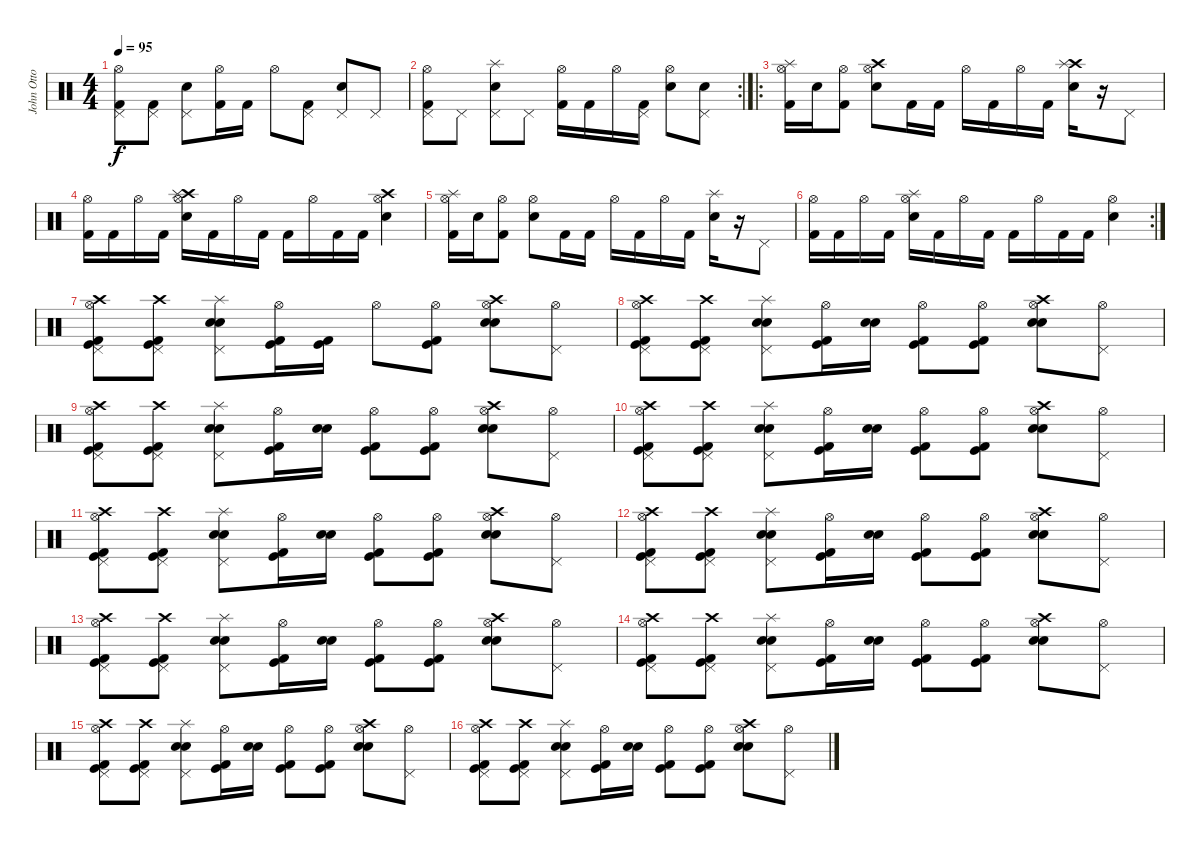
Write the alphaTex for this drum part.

\track ("John Otto (Drums)" "John Otto ") {instrument percussion}
\staff {score}
\articulation defaults
\ts (4 4)
\tempo 95
\clef neutral
\ks c
("Hi-Hat (open)" "Pedal Hi-Hat (hit)" "Kick (hit) 2").8{dy f} ("Pedal Hi-Hat (hit)" "Kick (hit) 2").8 ("Pedal Hi-Hat (hit)" "Electric Snare (hit)").8 ("Hi-Hat (open)" "Kick (hit) 2").16 "Kick (hit) 2".16 "Hi-Hat (open)".8 ("Pedal Hi-Hat (hit)" "Kick (hit) 2").8 ("Pedal Hi-Hat (hit)" "Electric Snare (hit)").8 "Pedal Hi-Hat (hit)".8 |
\rc 2
("Hi-Hat (open)" "Pedal Hi-Hat (hit)" "Kick (hit) 2").8 "Pedal Hi-Hat (hit)".8 ("Splash (hit)" "Pedal Hi-Hat (hit)" "Electric Snare (hit)").8 "Pedal Hi-Hat (hit)".8 ("Hi-Hat (open)" "Kick (hit) 2").16 "Kick (hit) 2".16 "Hi-Hat (open)".16 ("Pedal Hi-Hat (hit)" "Kick (hit) 2").16 ("Hi-Hat (open)" "Electric Snare (hit)").8 ("Pedal Hi-Hat (hit)" "Electric Snare (hit)").8 |
\ro
("Splash (hit)" "Hi-Hat (open)" "Kick (hit) 2").16 "Electric Snare (hit)".16 ("Hi-Hat (open)" "Kick (hit) 2").8 ("Crash high (hit)" "Hi-Hat (open)" "Electric Snare (hit)").8 "Kick (hit) 2".16 "Kick (hit) 2".16 "Hi-Hat (open)".16 "Kick (hit) 2".16 "Hi-Hat (open)".16 "Kick (hit) 2".16 ("Crash high (hit)" "Splash (hit)" "Electric Snare (hit)").16 r.16 "Pedal Hi-Hat (hit)".8 |
("Hi-Hat (open)" "Kick (hit) 2").16 "Kick (hit) 2".16 "Hi-Hat (open)".16 "Kick (hit) 2".16 ("Crash high (hit)" "Splash (hit)" "Hi-Hat (open)" "Electric Snare (hit)").16 "Kick (hit) 2".16 "Hi-Hat (open)".16 "Kick (hit) 2".16 "Kick (hit) 2".16 "Hi-Hat (open)".16 "Kick (hit) 2".16 "Kick (hit) 2".16 ("Crash high (hit)" "Hi-Hat (open)" "Electric Snare (hit)").4 |
("Splash (hit)" "Hi-Hat (open)" "Kick (hit) 2").16 "Electric Snare (hit)".16 ("Hi-Hat (open)" "Kick (hit) 2").8 ("Hi-Hat (open)" "Electric Snare (hit)").8 "Kick (hit) 2".16 "Kick (hit) 2".16 "Hi-Hat (open)".16 "Kick (hit) 2".16 "Hi-Hat (open)".16 "Kick (hit) 2".16 ("Splash (hit)" "Electric Snare (hit)").16 r.16 "Pedal Hi-Hat (hit)".8 |
\rc 2
("Hi-Hat (open)" "Kick (hit) 2").16 "Kick (hit) 2".16 "Hi-Hat (open)".16 "Kick (hit) 2".16 ("Splash (hit)" "Hi-Hat (open)" "Electric Snare (hit)").16 "Kick (hit) 2".16 "Hi-Hat (open)".16 "Kick (hit) 2".16 "Kick (hit) 2".16 "Hi-Hat (open)".16 "Kick (hit) 2".16 "Kick (hit) 2".16 ("Hi-Hat (open)" "Electric Snare (hit)").4 |
("Kick (hit)" "Crash high (hit)" "Hi-Hat (open)" "Pedal Hi-Hat (hit)" "Kick (hit) 2").8 ("Kick (hit)" "Crash high (hit)" "Pedal Hi-Hat (hit)" "Kick (hit) 2").8 ("Electric Snare (hit)" "Splash (hit)" "Pedal Hi-Hat (hit)" "Electric Snare (hit)").8 ("Kick (hit)" "Hi-Hat (open)" "Kick (hit) 2").16 ("Kick (hit)" "Kick (hit) 2").16 "Hi-Hat (open)".8 ("Kick (hit)" "Hi-Hat (open)" "Kick (hit) 2").8 ("Electric Snare (hit)" "Crash high (hit)" "Hi-Hat (open)" "Electric Snare (hit)").8 ("Hi-Hat (open)" "Pedal Hi-Hat (hit)").8 |
("Kick (hit)" "Crash high (hit)" "Hi-Hat (open)" "Pedal Hi-Hat (hit)" "Kick (hit) 2").8 ("Kick (hit)" "Crash high (hit)" "Pedal Hi-Hat (hit)" "Kick (hit) 2").8 ("Electric Snare (hit)" "Splash (hit)" "Pedal Hi-Hat (hit)" "Electric Snare (hit)").8 ("Kick (hit)" "Hi-Hat (open)" "Kick (hit) 2").16 ("Electric Snare (hit)" "Electric Snare (hit)").16 ("Kick (hit)" "Hi-Hat (open)" "Kick (hit) 2").8 ("Kick (hit)" "Hi-Hat (open)" "Kick (hit) 2").8 ("Electric Snare (hit)" "Crash high (hit)" "Hi-Hat (open)" "Electric Snare (hit)").8 ("Hi-Hat (open)" "Pedal Hi-Hat (hit)").8 |
("Kick (hit)" "Crash high (hit)" "Hi-Hat (open)" "Pedal Hi-Hat (hit)" "Kick (hit) 2").8 ("Kick (hit)" "Crash high (hit)" "Pedal Hi-Hat (hit)" "Kick (hit) 2").8 ("Electric Snare (hit)" "Splash (hit)" "Pedal Hi-Hat (hit)" "Electric Snare (hit)").8 ("Kick (hit)" "Hi-Hat (open)" "Kick (hit) 2").16 ("Electric Snare (hit)" "Electric Snare (hit)").16 ("Kick (hit)" "Hi-Hat (open)" "Kick (hit) 2").8 ("Kick (hit)" "Hi-Hat (open)" "Kick (hit) 2").8 ("Electric Snare (hit)" "Crash high (hit)" "Hi-Hat (open)" "Electric Snare (hit)").8 ("Hi-Hat (open)" "Pedal Hi-Hat (hit)").8 |
("Kick (hit)" "Crash high (hit)" "Hi-Hat (open)" "Pedal Hi-Hat (hit)" "Kick (hit) 2").8 ("Kick (hit)" "Crash high (hit)" "Pedal Hi-Hat (hit)" "Kick (hit) 2").8 ("Electric Snare (hit)" "Splash (hit)" "Pedal Hi-Hat (hit)" "Electric Snare (hit)").8 ("Kick (hit)" "Hi-Hat (open)" "Kick (hit) 2").16 ("Electric Snare (hit)" "Electric Snare (hit)").16 ("Kick (hit)" "Hi-Hat (open)" "Kick (hit) 2").8 ("Kick (hit)" "Hi-Hat (open)" "Kick (hit) 2").8 ("Electric Snare (hit)" "Crash high (hit)" "Hi-Hat (open)" "Electric Snare (hit)").8 ("Hi-Hat (open)" "Pedal Hi-Hat (hit)").8 |
("Kick (hit)" "Crash high (hit)" "Hi-Hat (open)" "Pedal Hi-Hat (hit)" "Kick (hit) 2").8 ("Kick (hit)" "Crash high (hit)" "Pedal Hi-Hat (hit)" "Kick (hit) 2").8 ("Electric Snare (hit)" "Splash (hit)" "Pedal Hi-Hat (hit)" "Electric Snare (hit)").8 ("Kick (hit)" "Hi-Hat (open)" "Kick (hit) 2").16 ("Electric Snare (hit)" "Electric Snare (hit)").16 ("Kick (hit)" "Hi-Hat (open)" "Kick (hit) 2").8 ("Kick (hit)" "Hi-Hat (open)" "Kick (hit) 2").8 ("Electric Snare (hit)" "Crash high (hit)" "Hi-Hat (open)" "Electric Snare (hit)").8 ("Hi-Hat (open)" "Pedal Hi-Hat (hit)").8 |
("Kick (hit)" "Crash high (hit)" "Hi-Hat (open)" "Pedal Hi-Hat (hit)" "Kick (hit) 2").8 ("Kick (hit)" "Crash high (hit)" "Pedal Hi-Hat (hit)" "Kick (hit) 2").8 ("Electric Snare (hit)" "Splash (hit)" "Pedal Hi-Hat (hit)" "Electric Snare (hit)").8 ("Kick (hit)" "Hi-Hat (open)" "Kick (hit) 2").16 ("Electric Snare (hit)" "Electric Snare (hit)").16 ("Kick (hit)" "Hi-Hat (open)" "Kick (hit) 2").8 ("Kick (hit)" "Hi-Hat (open)" "Kick (hit) 2").8 ("Electric Snare (hit)" "Crash high (hit)" "Hi-Hat (open)" "Electric Snare (hit)").8 ("Hi-Hat (open)" "Pedal Hi-Hat (hit)").8 |
("Kick (hit)" "Crash high (hit)" "Hi-Hat (open)" "Pedal Hi-Hat (hit)" "Kick (hit) 2").8 ("Kick (hit)" "Crash high (hit)" "Pedal Hi-Hat (hit)" "Kick (hit) 2").8 ("Electric Snare (hit)" "Splash (hit)" "Pedal Hi-Hat (hit)" "Electric Snare (hit)").8 ("Kick (hit)" "Hi-Hat (open)" "Kick (hit) 2").16 ("Electric Snare (hit)" "Electric Snare (hit)").16 ("Kick (hit)" "Hi-Hat (open)" "Kick (hit) 2").8 ("Kick (hit)" "Hi-Hat (open)" "Kick (hit) 2").8 ("Electric Snare (hit)" "Crash high (hit)" "Hi-Hat (open)" "Electric Snare (hit)").8 ("Hi-Hat (open)" "Pedal Hi-Hat (hit)").8 |
("Kick (hit)" "Crash high (hit)" "Hi-Hat (open)" "Pedal Hi-Hat (hit)" "Kick (hit) 2").8 ("Kick (hit)" "Crash high (hit)" "Pedal Hi-Hat (hit)" "Kick (hit) 2").8 ("Electric Snare (hit)" "Splash (hit)" "Pedal Hi-Hat (hit)" "Electric Snare (hit)").8 ("Kick (hit)" "Hi-Hat (open)" "Kick (hit) 2").16 ("Electric Snare (hit)" "Electric Snare (hit)").16 ("Kick (hit)" "Hi-Hat (open)" "Kick (hit) 2").8 ("Kick (hit)" "Hi-Hat (open)" "Kick (hit) 2").8 ("Electric Snare (hit)" "Crash high (hit)" "Hi-Hat (open)" "Electric Snare (hit)").8 ("Hi-Hat (open)" "Pedal Hi-Hat (hit)").8 |
("Kick (hit)" "Crash high (hit)" "Hi-Hat (open)" "Pedal Hi-Hat (hit)" "Kick (hit) 2").8 ("Kick (hit)" "Crash high (hit)" "Pedal Hi-Hat (hit)" "Kick (hit) 2").8 ("Electric Snare (hit)" "Splash (hit)" "Pedal Hi-Hat (hit)" "Electric Snare (hit)").8 ("Kick (hit)" "Hi-Hat (open)" "Kick (hit) 2").16 ("Electric Snare (hit)" "Electric Snare (hit)").16 ("Kick (hit)" "Hi-Hat (open)" "Kick (hit) 2").8 ("Kick (hit)" "Hi-Hat (open)" "Kick (hit) 2").8 ("Electric Snare (hit)" "Crash high (hit)" "Hi-Hat (open)" "Electric Snare (hit)").8 ("Hi-Hat (open)" "Pedal Hi-Hat (hit)").8 |
("Kick (hit)" "Crash high (hit)" "Hi-Hat (open)" "Pedal Hi-Hat (hit)" "Kick (hit) 2").8 ("Kick (hit)" "Crash high (hit)" "Pedal Hi-Hat (hit)" "Kick (hit) 2").8 ("Electric Snare (hit)" "Splash (hit)" "Pedal Hi-Hat (hit)" "Electric Snare (hit)").8 ("Kick (hit)" "Hi-Hat (open)" "Kick (hit) 2").16 ("Electric Snare (hit)" "Electric Snare (hit)").16 ("Kick (hit)" "Hi-Hat (open)" "Kick (hit) 2").8 ("Kick (hit)" "Hi-Hat (open)" "Kick (hit) 2").8 ("Electric Snare (hit)" "Crash high (hit)" "Hi-Hat (open)" "Electric Snare (hit)").8 ("Hi-Hat (open)" "Pedal Hi-Hat (hit)").8
